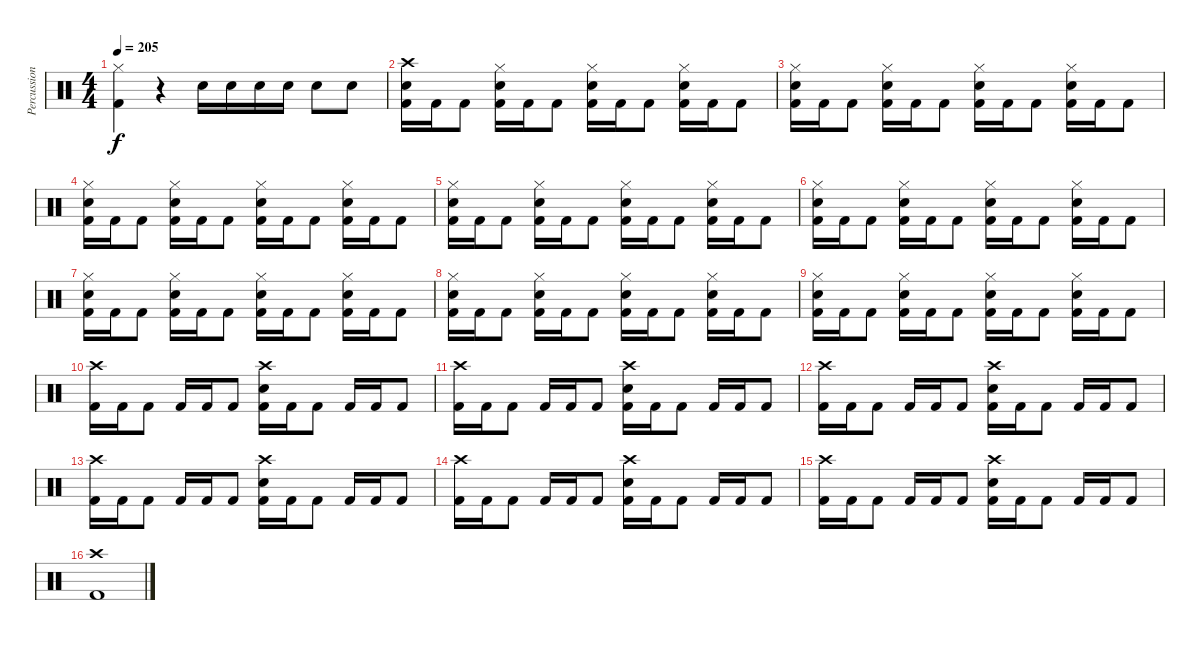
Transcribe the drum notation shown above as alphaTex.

\track ("Percussion" "Percussion") {instrument percussion}
\staff {score}
\articulation defaults
\ts (4 4)
\tempo 205
\clef neutral
\ks c
("Hi-Hat (closed)" "Kick (hit) 2").4{dy f} r.4 "Electric Snare (hit)".16 "Electric Snare (hit)".16 "Electric Snare (hit)".16 "Electric Snare (hit)".16 "Electric Snare (hit)".8 "Electric Snare (hit)".8 |
("Crash high (hit)" "Electric Snare (hit)" "Kick (hit) 2").16 "Kick (hit) 2".16 "Kick (hit) 2".8 ("Hi-Hat (closed)" "Electric Snare (hit)" "Kick (hit) 2").16 "Kick (hit) 2".16 "Kick (hit) 2".8 ("Hi-Hat (closed)" "Electric Snare (hit)" "Kick (hit) 2").16 "Kick (hit) 2".16 "Kick (hit) 2".8 ("Hi-Hat (closed)" "Electric Snare (hit)" "Kick (hit) 2").16 "Kick (hit) 2".16 "Kick (hit) 2".8 |
("Hi-Hat (closed)" "Electric Snare (hit)" "Kick (hit) 2").16 "Kick (hit) 2".16 "Kick (hit) 2".8 ("Hi-Hat (closed)" "Electric Snare (hit)" "Kick (hit) 2").16 "Kick (hit) 2".16 "Kick (hit) 2".8 ("Hi-Hat (closed)" "Electric Snare (hit)" "Kick (hit) 2").16 "Kick (hit) 2".16 "Kick (hit) 2".8 ("Hi-Hat (closed)" "Electric Snare (hit)" "Kick (hit) 2").16 "Kick (hit) 2".16 "Kick (hit) 2".8 |
("Hi-Hat (closed)" "Electric Snare (hit)" "Kick (hit) 2").16 "Kick (hit) 2".16 "Kick (hit) 2".8 ("Hi-Hat (closed)" "Electric Snare (hit)" "Kick (hit) 2").16 "Kick (hit) 2".16 "Kick (hit) 2".8 ("Hi-Hat (closed)" "Electric Snare (hit)" "Kick (hit) 2").16 "Kick (hit) 2".16 "Kick (hit) 2".8 ("Hi-Hat (closed)" "Electric Snare (hit)" "Kick (hit) 2").16 "Kick (hit) 2".16 "Kick (hit) 2".8 |
("Hi-Hat (closed)" "Electric Snare (hit)" "Kick (hit) 2").16 "Kick (hit) 2".16 "Kick (hit) 2".8 ("Hi-Hat (closed)" "Electric Snare (hit)" "Kick (hit) 2").16 "Kick (hit) 2".16 "Kick (hit) 2".8 ("Hi-Hat (closed)" "Electric Snare (hit)" "Kick (hit) 2").16 "Kick (hit) 2".16 "Kick (hit) 2".8 ("Hi-Hat (closed)" "Electric Snare (hit)" "Kick (hit) 2").16 "Kick (hit) 2".16 "Kick (hit) 2".8 |
("Hi-Hat (closed)" "Electric Snare (hit)" "Kick (hit) 2").16 "Kick (hit) 2".16 "Kick (hit) 2".8 ("Hi-Hat (closed)" "Electric Snare (hit)" "Kick (hit) 2").16 "Kick (hit) 2".16 "Kick (hit) 2".8 ("Hi-Hat (closed)" "Electric Snare (hit)" "Kick (hit) 2").16 "Kick (hit) 2".16 "Kick (hit) 2".8 ("Hi-Hat (closed)" "Electric Snare (hit)" "Kick (hit) 2").16 "Kick (hit) 2".16 "Kick (hit) 2".8 |
("Hi-Hat (closed)" "Electric Snare (hit)" "Kick (hit) 2").16 "Kick (hit) 2".16 "Kick (hit) 2".8 ("Hi-Hat (closed)" "Electric Snare (hit)" "Kick (hit) 2").16 "Kick (hit) 2".16 "Kick (hit) 2".8 ("Hi-Hat (closed)" "Electric Snare (hit)" "Kick (hit) 2").16 "Kick (hit) 2".16 "Kick (hit) 2".8 ("Hi-Hat (closed)" "Electric Snare (hit)" "Kick (hit) 2").16 "Kick (hit) 2".16 "Kick (hit) 2".8 |
("Hi-Hat (closed)" "Electric Snare (hit)" "Kick (hit) 2").16 "Kick (hit) 2".16 "Kick (hit) 2".8 ("Hi-Hat (closed)" "Electric Snare (hit)" "Kick (hit) 2").16 "Kick (hit) 2".16 "Kick (hit) 2".8 ("Hi-Hat (closed)" "Electric Snare (hit)" "Kick (hit) 2").16 "Kick (hit) 2".16 "Kick (hit) 2".8 ("Hi-Hat (closed)" "Electric Snare (hit)" "Kick (hit) 2").16 "Kick (hit) 2".16 "Kick (hit) 2".8 |
("Hi-Hat (closed)" "Electric Snare (hit)" "Kick (hit) 2").16 "Kick (hit) 2".16 "Kick (hit) 2".8 ("Hi-Hat (closed)" "Electric Snare (hit)" "Kick (hit) 2").16 "Kick (hit) 2".16 "Kick (hit) 2".8 ("Hi-Hat (closed)" "Electric Snare (hit)" "Kick (hit) 2").16 "Kick (hit) 2".16 "Kick (hit) 2".8 ("Hi-Hat (closed)" "Electric Snare (hit)" "Kick (hit) 2").16 "Kick (hit) 2".16 "Kick (hit) 2".8 |
("Crash high (hit)" "Kick (hit) 2").16 "Kick (hit) 2".16 "Kick (hit) 2".8 "Kick (hit) 2".16 "Kick (hit) 2".16 "Kick (hit) 2".8 ("Crash high (hit)" "Electric Snare (hit)" "Kick (hit) 2").16 "Kick (hit) 2".16 "Kick (hit) 2".8 "Kick (hit) 2".16 "Kick (hit) 2".16 "Kick (hit) 2".8 |
("Crash high (hit)" "Kick (hit) 2").16 "Kick (hit) 2".16 "Kick (hit) 2".8 "Kick (hit) 2".16 "Kick (hit) 2".16 "Kick (hit) 2".8 ("Crash high (hit)" "Electric Snare (hit)" "Kick (hit) 2").16 "Kick (hit) 2".16 "Kick (hit) 2".8 "Kick (hit) 2".16 "Kick (hit) 2".16 "Kick (hit) 2".8 |
("Crash high (hit)" "Kick (hit) 2").16 "Kick (hit) 2".16 "Kick (hit) 2".8 "Kick (hit) 2".16 "Kick (hit) 2".16 "Kick (hit) 2".8 ("Crash high (hit)" "Electric Snare (hit)" "Kick (hit) 2").16 "Kick (hit) 2".16 "Kick (hit) 2".8 "Kick (hit) 2".16 "Kick (hit) 2".16 "Kick (hit) 2".8 |
("Crash high (hit)" "Kick (hit) 2").16 "Kick (hit) 2".16 "Kick (hit) 2".8 "Kick (hit) 2".16 "Kick (hit) 2".16 "Kick (hit) 2".8 ("Crash high (hit)" "Electric Snare (hit)" "Kick (hit) 2").16 "Kick (hit) 2".16 "Kick (hit) 2".8 "Kick (hit) 2".16 "Kick (hit) 2".16 "Kick (hit) 2".8 |
("Crash high (hit)" "Kick (hit) 2").16 "Kick (hit) 2".16 "Kick (hit) 2".8 "Kick (hit) 2".16 "Kick (hit) 2".16 "Kick (hit) 2".8 ("Crash high (hit)" "Electric Snare (hit)" "Kick (hit) 2").16 "Kick (hit) 2".16 "Kick (hit) 2".8 "Kick (hit) 2".16 "Kick (hit) 2".16 "Kick (hit) 2".8 |
("Crash high (hit)" "Kick (hit) 2").16 "Kick (hit) 2".16 "Kick (hit) 2".8 "Kick (hit) 2".16 "Kick (hit) 2".16 "Kick (hit) 2".8 ("Crash high (hit)" "Electric Snare (hit)" "Kick (hit) 2").16 "Kick (hit) 2".16 "Kick (hit) 2".8 "Kick (hit) 2".16 "Kick (hit) 2".16 "Kick (hit) 2".8 |
("Crash high (hit)" "Kick (hit) 2").1
